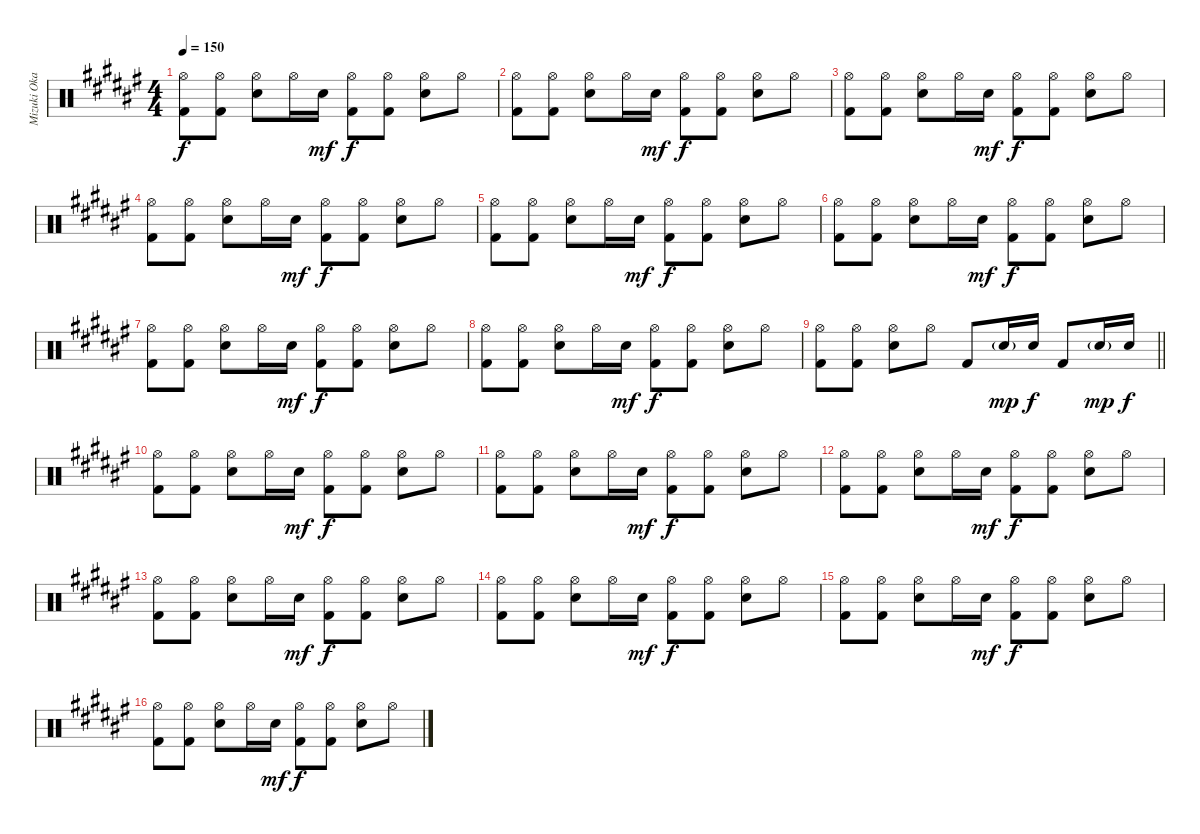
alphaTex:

\track ("Mizuki Okajima (Drums)" "Mizuki Oka") {instrument percussion}
\staff {score}
\articulation defaults
\ts (4 4)
\tempo 150
\clef neutral
\ks d#minor
("Hi-Hat (open)" "Kick (hit) 2").8{dy f} ("Hi-Hat (open)" "Kick (hit) 2").8 ("Hi-Hat (open)" "Snare (hit) 2").8 "Hi-Hat (open)".16 "Snare (hit) 2".16{dy mf} ("Hi-Hat (open)" "Kick (hit) 2").8{dy f} ("Hi-Hat (open)" "Kick (hit) 2").8 ("Hi-Hat (open)" "Snare (hit) 2").8 "Hi-Hat (open)".8 |
("Hi-Hat (open)" "Kick (hit) 2").8 ("Hi-Hat (open)" "Kick (hit) 2").8 ("Hi-Hat (open)" "Snare (hit) 2").8 "Hi-Hat (open)".16 "Snare (hit) 2".16{dy mf} ("Hi-Hat (open)" "Kick (hit) 2").8{dy f} ("Hi-Hat (open)" "Kick (hit) 2").8 ("Hi-Hat (open)" "Snare (hit) 2").8 "Hi-Hat (open)".8 |
("Hi-Hat (open)" "Kick (hit) 2").8 ("Hi-Hat (open)" "Kick (hit) 2").8 ("Hi-Hat (open)" "Snare (hit) 2").8 "Hi-Hat (open)".16 "Snare (hit) 2".16{dy mf} ("Hi-Hat (open)" "Kick (hit) 2").8{dy f} ("Hi-Hat (open)" "Kick (hit) 2").8 ("Hi-Hat (open)" "Snare (hit) 2").8 "Hi-Hat (open)".8 |
("Hi-Hat (open)" "Kick (hit) 2").8 ("Hi-Hat (open)" "Kick (hit) 2").8 ("Hi-Hat (open)" "Snare (hit) 2").8 "Hi-Hat (open)".16 "Snare (hit) 2".16{dy mf} ("Hi-Hat (open)" "Kick (hit) 2").8{dy f} ("Hi-Hat (open)" "Kick (hit) 2").8 ("Hi-Hat (open)" "Snare (hit) 2").8 "Hi-Hat (open)".8 |
("Hi-Hat (open)" "Kick (hit) 2").8 ("Hi-Hat (open)" "Kick (hit) 2").8 ("Hi-Hat (open)" "Snare (hit) 2").8 "Hi-Hat (open)".16 "Snare (hit) 2".16{dy mf} ("Hi-Hat (open)" "Kick (hit) 2").8{dy f} ("Hi-Hat (open)" "Kick (hit) 2").8 ("Hi-Hat (open)" "Snare (hit) 2").8 "Hi-Hat (open)".8 |
("Hi-Hat (open)" "Kick (hit) 2").8 ("Hi-Hat (open)" "Kick (hit) 2").8 ("Hi-Hat (open)" "Snare (hit) 2").8 "Hi-Hat (open)".16 "Snare (hit) 2".16{dy mf} ("Hi-Hat (open)" "Kick (hit) 2").8{dy f} ("Hi-Hat (open)" "Kick (hit) 2").8 ("Hi-Hat (open)" "Snare (hit) 2").8 "Hi-Hat (open)".8 |
("Hi-Hat (open)" "Kick (hit) 2").8 ("Hi-Hat (open)" "Kick (hit) 2").8 ("Hi-Hat (open)" "Snare (hit) 2").8 "Hi-Hat (open)".16 "Snare (hit) 2".16{dy mf} ("Hi-Hat (open)" "Kick (hit) 2").8{dy f} ("Hi-Hat (open)" "Kick (hit) 2").8 ("Hi-Hat (open)" "Snare (hit) 2").8 "Hi-Hat (open)".8 |
("Hi-Hat (open)" "Kick (hit) 2").8 ("Hi-Hat (open)" "Kick (hit) 2").8 ("Hi-Hat (open)" "Snare (hit) 2").8 "Hi-Hat (open)".16 "Snare (hit) 2".16{dy mf} ("Hi-Hat (open)" "Kick (hit) 2").8{dy f} ("Hi-Hat (open)" "Kick (hit) 2").8 ("Hi-Hat (open)" "Snare (hit) 2").8 "Hi-Hat (open)".8 |
\barLineRight lightlight
("Hi-Hat (open)" "Kick (hit) 2").8 ("Hi-Hat (open)" "Kick (hit) 2").8 ("Hi-Hat (open)" "Snare (hit) 2").8 "Hi-Hat (open)".8 "Kick (hit) 2".8 "Snare (hit) 2"{g}.16{dy mp} "Snare (hit) 2".16{dy f} "Kick (hit) 2".8 "Snare (hit) 2"{g}.16{dy mp} "Snare (hit) 2".16{dy f} |
("Hi-Hat (open)" "Kick (hit) 2").8 ("Hi-Hat (open)" "Kick (hit) 2").8 ("Hi-Hat (open)" "Snare (hit) 2").8 "Hi-Hat (open)".16 "Snare (hit) 2".16{dy mf} ("Hi-Hat (open)" "Kick (hit) 2").8{dy f} ("Hi-Hat (open)" "Kick (hit) 2").8 ("Hi-Hat (open)" "Snare (hit) 2").8 "Hi-Hat (open)".8 |
("Hi-Hat (open)" "Kick (hit) 2").8 ("Hi-Hat (open)" "Kick (hit) 2").8 ("Hi-Hat (open)" "Snare (hit) 2").8 "Hi-Hat (open)".16 "Snare (hit) 2".16{dy mf} ("Hi-Hat (open)" "Kick (hit) 2").8{dy f} ("Hi-Hat (open)" "Kick (hit) 2").8 ("Hi-Hat (open)" "Snare (hit) 2").8 "Hi-Hat (open)".8 |
("Hi-Hat (open)" "Kick (hit) 2").8 ("Hi-Hat (open)" "Kick (hit) 2").8 ("Hi-Hat (open)" "Snare (hit) 2").8 "Hi-Hat (open)".16 "Snare (hit) 2".16{dy mf} ("Hi-Hat (open)" "Kick (hit) 2").8{dy f} ("Hi-Hat (open)" "Kick (hit) 2").8 ("Hi-Hat (open)" "Snare (hit) 2").8 "Hi-Hat (open)".8 |
("Hi-Hat (open)" "Kick (hit) 2").8 ("Hi-Hat (open)" "Kick (hit) 2").8 ("Hi-Hat (open)" "Snare (hit) 2").8 "Hi-Hat (open)".16 "Snare (hit) 2".16{dy mf} ("Hi-Hat (open)" "Kick (hit) 2").8{dy f} ("Hi-Hat (open)" "Kick (hit) 2").8 ("Hi-Hat (open)" "Snare (hit) 2").8 "Hi-Hat (open)".8 |
("Hi-Hat (open)" "Kick (hit) 2").8 ("Hi-Hat (open)" "Kick (hit) 2").8 ("Hi-Hat (open)" "Snare (hit) 2").8 "Hi-Hat (open)".16 "Snare (hit) 2".16{dy mf} ("Hi-Hat (open)" "Kick (hit) 2").8{dy f} ("Hi-Hat (open)" "Kick (hit) 2").8 ("Hi-Hat (open)" "Snare (hit) 2").8 "Hi-Hat (open)".8 |
("Hi-Hat (open)" "Kick (hit) 2").8 ("Hi-Hat (open)" "Kick (hit) 2").8 ("Hi-Hat (open)" "Snare (hit) 2").8 "Hi-Hat (open)".16 "Snare (hit) 2".16{dy mf} ("Hi-Hat (open)" "Kick (hit) 2").8{dy f} ("Hi-Hat (open)" "Kick (hit) 2").8 ("Hi-Hat (open)" "Snare (hit) 2").8 "Hi-Hat (open)".8 |
("Hi-Hat (open)" "Kick (hit) 2").8 ("Hi-Hat (open)" "Kick (hit) 2").8 ("Hi-Hat (open)" "Snare (hit) 2").8 "Hi-Hat (open)".16 "Snare (hit) 2".16{dy mf} ("Hi-Hat (open)" "Kick (hit) 2").8{dy f} ("Hi-Hat (open)" "Kick (hit) 2").8 ("Hi-Hat (open)" "Snare (hit) 2").8 "Hi-Hat (open)".8
